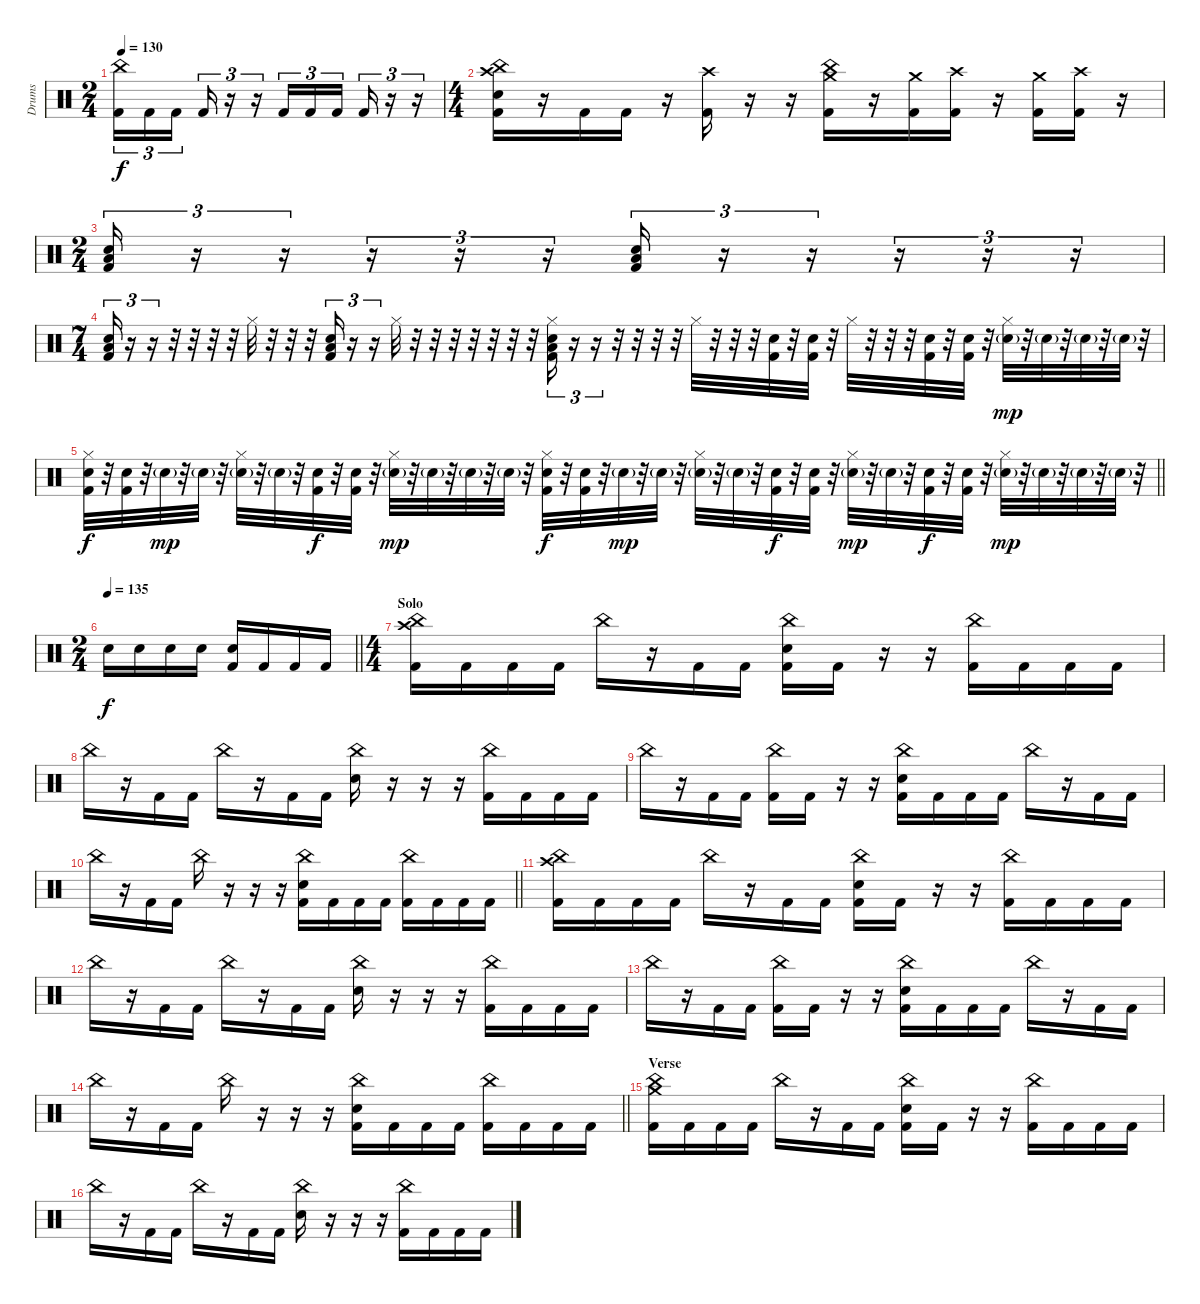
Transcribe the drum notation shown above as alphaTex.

\track ("Drums" "Drums") {instrument percussion}
\staff {score}
\articulation defaults
\ts (2 4)
\tempo 130
\clef neutral
\ks c
("China (hit)" "Kick (hit) 2").16{tu (3 2) dy f} "Kick (hit) 2".16{tu (3 2)} "Kick (hit) 2".16{tu (3 2) beam splitsecondary} "Kick (hit) 2".16{tu (3 2)} r.16{tu (3 2)} r.16{tu (3 2)} "Kick (hit) 2".16{tu (3 2)} "Kick (hit) 2".16{tu (3 2)} "Kick (hit) 2".16{tu (3 2) beam splitsecondary} "Kick (hit) 2".16{tu (3 2)} r.16{tu (3 2)} r.16{tu (3 2)} |
\ts (4 4)
("Crash high (hit)" "China (hit)" "Snare (hit) 2" "Kick (hit) 2").16 r.16 "Kick (hit) 2".16 "Kick (hit) 2".16 r.16 ("Crash high (hit)" "Kick (hit) 2").16 r.16 r.16 ("Crash medium (hit)" "China (hit)" "Kick (hit) 2").16 r.16 ("Crash medium (hit)" "Kick (hit) 2").16 ("Crash high (hit)" "Kick (hit) 2").16 r.16 ("Crash medium (hit)" "Kick (hit) 2").16 ("Crash high (hit)" "Kick (hit) 2").16 r.16 |
\ts (2 4)
("Low Floor Tom (hit)" "Snare (hit) 2" "Kick (hit) 2").16{tu (3 2)} r.16{tu (3 2)} r.16{tu (3 2)} r.16{tu (3 2)} r.16{tu (3 2)} r.16{tu (3 2)} ("Low Floor Tom (hit)" "Snare (hit) 2" "Kick (hit) 2").16{tu (3 2)} r.16{tu (3 2)} r.16{tu (3 2)} r.16{tu (3 2)} r.16{tu (3 2)} r.16{tu (3 2)} |
\ts (7 4)
("Low Floor Tom (hit)" "Snare (hit) 2" "Kick (hit) 2").16{tu (3 2)} r.16{tu (3 2)} r.16{tu (3 2)} r.32 r.32 r.32 r.32 "Hi-Hat (closed)".32 r.32 r.32 r.32 ("Low Floor Tom (hit)" "Snare (hit) 2" "Kick (hit) 2").16{tu (3 2)} r.16{tu (3 2)} r.16{tu (3 2)} "Hi-Hat (closed)".32 r.32 r.32 r.32 r.32 r.32 r.32 r.32 ("Hi-Hat (closed)" "Low Floor Tom (hit)" "Snare (hit) 2" "Kick (hit) 2").16{tu (3 2)} r.16{tu (3 2)} r.16{tu (3 2)} r.32 r.32 r.32 r.32 "Hi-Hat (closed)".32 r.32 r.32 r.32 ("Snare (hit) 2" "Kick (hit) 2").32 r.32 ("Snare (hit) 2" "Kick (hit) 2").32 r.32 "Hi-Hat (closed)".32 r.32 r.32 r.32 ("Snare (hit) 2" "Kick (hit) 2").32 r.32 ("Snare (hit) 2" "Kick (hit) 2").32 r.32 ("Hi-Hat (closed)" "Snare (hit) 2"{g}).32{dy mp} r.32 "Snare (hit) 2"{g}.32 r.32 "Snare (hit) 2"{g}.32 r.32 "Snare (hit) 2"{g}.32 r.32 |
\barLineRight lightlight
("Hi-Hat (closed)" "Snare (hit) 2" "Kick (hit) 2").32{dy f} r.32 ("Snare (hit) 2" "Kick (hit) 2").32 r.32 "Snare (hit) 2"{g}.32{dy mp} r.32 "Snare (hit) 2"{g}.32 r.32 ("Hi-Hat (closed)" "Snare (hit) 2"{g}).32 r.32 "Snare (hit) 2"{g}.32 r.32 ("Snare (hit) 2" "Kick (hit) 2").32{dy f} r.32 ("Snare (hit) 2" "Kick (hit) 2").32 r.32 ("Hi-Hat (closed)" "Snare (hit) 2"{g}).32{dy mp} r.32 "Snare (hit) 2"{g}.32 r.32 "Snare (hit) 2"{g}.32 r.32 "Snare (hit) 2"{g}.32 r.32 ("Hi-Hat (closed)" "Snare (hit) 2" "Kick (hit) 2").32{dy f} r.32 ("Snare (hit) 2" "Kick (hit) 2").32 r.32 "Snare (hit) 2"{g}.32{dy mp} r.32 "Snare (hit) 2"{g}.32 r.32 ("Hi-Hat (closed)" "Snare (hit) 2"{g}).32 r.32 "Snare (hit) 2"{g}.32 r.32 ("Snare (hit) 2" "Kick (hit) 2").32{dy f} r.32 ("Snare (hit) 2" "Kick (hit) 2").32 r.32 ("Hi-Hat (closed)" "Snare (hit) 2"{g}).32{dy mp} r.32 "Snare (hit) 2"{g}.32 r.32 ("Snare (hit) 2" "Kick (hit) 2").32{dy f} r.32 ("Snare (hit) 2" "Kick (hit) 2").32 r.32 ("Hi-Hat (closed)" "Snare (hit) 2"{g}).32{dy mp} r.32 "Snare (hit) 2"{g}.32 r.32 "Snare (hit) 2"{g}.32 r.32 "Snare (hit) 2"{g}.32 r.32 |
\ts (2 4)
\section ("" "")
\tempo 135
\barLineRight lightlight "Snare (hit) 2".16{dy f} "Snare (hit) 2".16 "Snare (hit) 2".16 "Snare (hit) 2".16
("Snare (hit) 2" "Kick (hit) 2").16 "Kick (hit) 2".16 "Kick (hit) 2".16 "Kick (hit) 2".16 |
\ts (4 4)
\section ("" "Solo")
("Crash high (hit)" "China (hit)" "Kick (hit) 2").16 "Kick (hit) 2".16 "Kick (hit) 2".16 "Kick (hit) 2".16 "China (hit)".16 r.16 "Kick (hit) 2".16 "Kick (hit) 2".16 ("China (hit)" "Snare (hit) 2" "Kick (hit) 2").16 "Kick (hit) 2".16 r.16 r.16 ("China (hit)" "Kick (hit) 2").16 "Kick (hit) 2".16 "Kick (hit) 2".16 "Kick (hit) 2".16 |
"China (hit)".16 r.16 "Kick (hit) 2".16 "Kick (hit) 2".16 "China (hit)".16 r.16 "Kick (hit) 2".16 "Kick (hit) 2".16 ("China (hit)" "Snare (hit) 2").16 r.16 r.16 r.16 ("China (hit)" "Kick (hit) 2").16 "Kick (hit) 2".16 "Kick (hit) 2".16 "Kick (hit) 2".16 |
"China (hit)".16 r.16 "Kick (hit) 2".16 "Kick (hit) 2".16 ("China (hit)" "Kick (hit) 2").16 "Kick (hit) 2".16 r.16 r.16 ("China (hit)" "Snare (hit) 2" "Kick (hit) 2").16 "Kick (hit) 2".16 "Kick (hit) 2".16 "Kick (hit) 2".16 "China (hit)".16 r.16 "Kick (hit) 2".16 "Kick (hit) 2".16 |
\barLineRight lightlight "China (hit)".16
r.16 "Kick (hit) 2".16 "Kick (hit) 2".16 "China (hit)".16 r.16 r.16 r.16 ("China (hit)" "Snare (hit) 2" "Kick (hit) 2").16 "Kick (hit) 2".16 "Kick (hit) 2".16 "Kick (hit) 2".16 ("China (hit)" "Kick (hit) 2").16 "Kick (hit) 2".16 "Kick (hit) 2".16 "Kick (hit) 2".16 |
("Crash high (hit)" "China (hit)" "Kick (hit) 2").16 "Kick (hit) 2".16 "Kick (hit) 2".16 "Kick (hit) 2".16 "China (hit)".16 r.16 "Kick (hit) 2".16 "Kick (hit) 2".16 ("China (hit)" "Snare (hit) 2" "Kick (hit) 2").16 "Kick (hit) 2".16 r.16 r.16 ("China (hit)" "Kick (hit) 2").16 "Kick (hit) 2".16 "Kick (hit) 2".16 "Kick (hit) 2".16 |
"China (hit)".16 r.16 "Kick (hit) 2".16 "Kick (hit) 2".16 "China (hit)".16 r.16 "Kick (hit) 2".16 "Kick (hit) 2".16 ("China (hit)" "Snare (hit) 2").16 r.16 r.16 r.16 ("China (hit)" "Kick (hit) 2").16 "Kick (hit) 2".16 "Kick (hit) 2".16 "Kick (hit) 2".16 |
"China (hit)".16 r.16 "Kick (hit) 2".16 "Kick (hit) 2".16 ("China (hit)" "Kick (hit) 2").16 "Kick (hit) 2".16 r.16 r.16 ("China (hit)" "Snare (hit) 2" "Kick (hit) 2").16 "Kick (hit) 2".16 "Kick (hit) 2".16 "Kick (hit) 2".16 "China (hit)".16 r.16 "Kick (hit) 2".16 "Kick (hit) 2".16 |
\barLineRight lightlight "China (hit)".16
r.16 "Kick (hit) 2".16 "Kick (hit) 2".16 "China (hit)".16 r.16 r.16 r.16 ("China (hit)" "Snare (hit) 2" "Kick (hit) 2").16 "Kick (hit) 2".16 "Kick (hit) 2".16 "Kick (hit) 2".16 ("China (hit)" "Kick (hit) 2").16 "Kick (hit) 2".16 "Kick (hit) 2".16 "Kick (hit) 2".16 |
\section ("" "Verse")
("Crash medium (hit)" "China (hit)" "Kick (hit) 2").16 "Kick (hit) 2".16 "Kick (hit) 2".16 "Kick (hit) 2".16 "China (hit)".16 r.16 "Kick (hit) 2".16 "Kick (hit) 2".16 ("China (hit)" "Snare (hit) 2" "Kick (hit) 2").16 "Kick (hit) 2".16 r.16 r.16 ("China (hit)" "Kick (hit) 2").16 "Kick (hit) 2".16 "Kick (hit) 2".16 "Kick (hit) 2".16 |
"China (hit)".16 r.16 "Kick (hit) 2".16 "Kick (hit) 2".16 "China (hit)".16 r.16 "Kick (hit) 2".16 "Kick (hit) 2".16 ("China (hit)" "Snare (hit) 2").16 r.16 r.16 r.16 ("China (hit)" "Kick (hit) 2").16 "Kick (hit) 2".16 "Kick (hit) 2".16 "Kick (hit) 2".16
